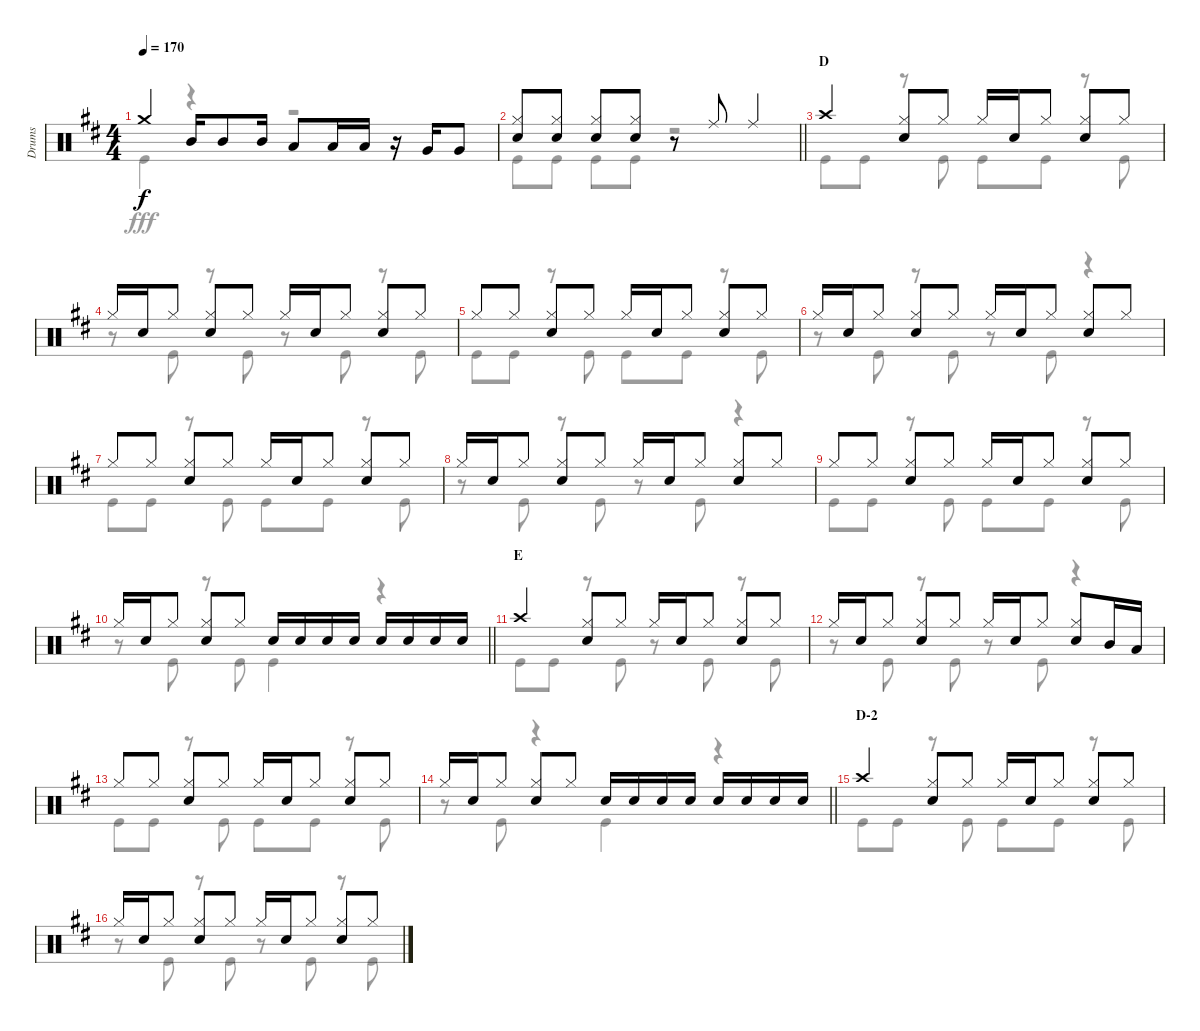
\track ("Drums" "Drums") {instrument percussion}
\staff {score}
\articulation defaults
\voice
\ts (4 4)
\tempo 170
\clef neutral
\ks d "Crash medium (hit)".4{dy f} "Mid Tom (hit)".16 "Mid Tom (hit)".8 "Mid Tom (hit)".16 "Low Tom (hit)".8 "Low Tom (hit)".16 "Low Tom (hit)".16
r.16 "Very Low Tom (hit)".16 "Very Low Tom (hit)".8 |
\barLineRight lightlight
("Hi-Hat (closed)" "Snare (hit) 2").8 ("Hi-Hat (closed)" "Snare (hit) 2").8 ("Hi-Hat (closed)" "Snare (hit) 2").8 ("Hi-Hat (closed)" "Snare (hit) 2").8 r.8 "Ride (middle)".8 "Ride (middle)".4 |
\section ("" "D")
"Crash high (hit)".4 ("Hi-Hat (closed)" "Snare (hit) 2").8 "Hi-Hat (closed)".8 "Hi-Hat (closed)".16 "Snare (hit) 2".16 "Hi-Hat (closed)".8 ("Hi-Hat (closed)" "Snare (hit) 2").8 "Hi-Hat (closed)".8 |
"Hi-Hat (closed)".16 "Snare (hit) 2".16 "Hi-Hat (closed)".8 ("Hi-Hat (closed)" "Snare (hit) 2").8 "Hi-Hat (closed)".8 "Hi-Hat (closed)".16 "Snare (hit) 2".16 "Hi-Hat (closed)".8 ("Hi-Hat (closed)" "Snare (hit) 2").8 "Hi-Hat (closed)".8 |
"Hi-Hat (closed)".8 "Hi-Hat (closed)".8 ("Hi-Hat (closed)" "Snare (hit) 2").8 "Hi-Hat (closed)".8 "Hi-Hat (closed)".16 "Snare (hit) 2".16 "Hi-Hat (closed)".8 ("Hi-Hat (closed)" "Snare (hit) 2").8 "Hi-Hat (closed)".8 |
"Hi-Hat (closed)".16 "Snare (hit) 2".16 "Hi-Hat (closed)".8 ("Hi-Hat (closed)" "Snare (hit) 2").8 "Hi-Hat (closed)".8 "Hi-Hat (closed)".16 "Snare (hit) 2".16 "Hi-Hat (closed)".8 ("Hi-Hat (closed)" "Snare (hit) 2").8 "Hi-Hat (closed)".8 |
"Hi-Hat (closed)".8 "Hi-Hat (closed)".8 ("Hi-Hat (closed)" "Snare (hit) 2").8 "Hi-Hat (closed)".8 "Hi-Hat (closed)".16 "Snare (hit) 2".16 "Hi-Hat (closed)".8 ("Hi-Hat (closed)" "Snare (hit) 2").8 "Hi-Hat (closed)".8 |
"Hi-Hat (closed)".16 "Snare (hit) 2".16 "Hi-Hat (closed)".8 ("Hi-Hat (closed)" "Snare (hit) 2").8 "Hi-Hat (closed)".8 "Hi-Hat (closed)".16 "Snare (hit) 2".16 "Hi-Hat (closed)".8 ("Hi-Hat (closed)" "Snare (hit) 2").8 "Hi-Hat (closed)".8 |
"Hi-Hat (closed)".8 "Hi-Hat (closed)".8 ("Hi-Hat (closed)" "Snare (hit) 2").8 "Hi-Hat (closed)".8 "Hi-Hat (closed)".16 "Snare (hit) 2".16 "Hi-Hat (closed)".8 ("Hi-Hat (closed)" "Snare (hit) 2").8 "Hi-Hat (closed)".8 |
\barLineRight lightlight "Hi-Hat (closed)".16 "Snare (hit) 2".16 "Hi-Hat (closed)".8
("Hi-Hat (closed)" "Snare (hit) 2").8 "Hi-Hat (closed)".8 "Snare (hit) 2".16 "Snare (hit) 2".16 "Snare (hit) 2".16 "Snare (hit) 2".16 "Snare (hit) 2".16 "Snare (hit) 2".16 "Snare (hit) 2".16 "Snare (hit) 2".16 |
\section ("" "E")
"Crash high (hit)".4 ("Hi-Hat (closed)" "Snare (hit) 2").8 "Hi-Hat (closed)".8 "Hi-Hat (closed)".16 "Snare (hit) 2".16 "Hi-Hat (closed)".8 ("Hi-Hat (closed)" "Snare (hit) 2").8 "Hi-Hat (closed)".8 |
"Hi-Hat (closed)".16 "Snare (hit) 2".16 "Hi-Hat (closed)".8 ("Hi-Hat (closed)" "Snare (hit) 2").8 "Hi-Hat (closed)".8 "Hi-Hat (closed)".16 "Snare (hit) 2".16 "Hi-Hat (closed)".8 ("Hi-Hat (closed)" "Snare (hit) 2").8 "Mid Tom (hit)".16 "Low Tom (hit)".16 |
"Hi-Hat (closed)".8 "Hi-Hat (closed)".8 ("Hi-Hat (closed)" "Snare (hit) 2").8 "Hi-Hat (closed)".8 "Hi-Hat (closed)".16 "Snare (hit) 2".16 "Hi-Hat (closed)".8 ("Hi-Hat (closed)" "Snare (hit) 2").8 "Hi-Hat (closed)".8 |
\barLineRight lightlight "Hi-Hat (closed)".16 "Snare (hit) 2".16 "Hi-Hat (closed)".8
("Hi-Hat (closed)" "Snare (hit) 2").8 "Hi-Hat (closed)".8 "Snare (hit) 2".16 "Snare (hit) 2".16 "Snare (hit) 2".16 "Snare (hit) 2".16 "Snare (hit) 2".16 "Snare (hit) 2".16 "Snare (hit) 2".16 "Snare (hit) 2".16 |
\section ("" "D-2")
"Crash high (hit)".4 ("Hi-Hat (closed)" "Snare (hit) 2").8 "Hi-Hat (closed)".8 "Hi-Hat (closed)".16 "Snare (hit) 2".16 "Hi-Hat (closed)".8 ("Hi-Hat (closed)" "Snare (hit) 2").8 "Hi-Hat (closed)".8 |
"Hi-Hat (closed)".16 "Snare (hit) 2".16 "Hi-Hat (closed)".8 ("Hi-Hat (closed)" "Snare (hit) 2").8 "Hi-Hat (closed)".8 "Hi-Hat (closed)".16 "Snare (hit) 2".16 "Hi-Hat (closed)".8 ("Hi-Hat (closed)" "Snare (hit) 2").8 "Hi-Hat (closed)".8
\voice
\clef neutral
\ottava regular
\simile none
\ks d "Kick (hit)".4{dy fff}
r.4 r.2 |
\barLineRight lightlight "Kick (hit)".8 "Kick (hit)".8 "Kick (hit)".8 "Kick (hit)".8
r.2 |
"Kick (hit)".8 "Kick (hit)".8 r.8 "Kick (hit)".8 "Kick (hit)".8 "Kick (hit)".8 r.8 "Kick (hit)".8 |
r.8 "Kick (hit)".8 r.8 "Kick (hit)".8 r.8 "Kick (hit)".8 r.8 "Kick (hit)".8 |
"Kick (hit)".8 "Kick (hit)".8 r.8 "Kick (hit)".8 "Kick (hit)".8 "Kick (hit)".8 r.8 "Kick (hit)".8 |
r.8 "Kick (hit)".8 r.8 "Kick (hit)".8 r.8 "Kick (hit)".8 r.4 |
"Kick (hit)".8 "Kick (hit)".8 r.8 "Kick (hit)".8 "Kick (hit)".8 "Kick (hit)".8 r.8 "Kick (hit)".8 |
r.8 "Kick (hit)".8 r.8 "Kick (hit)".8 r.8 "Kick (hit)".8 r.4 |
"Kick (hit)".8 "Kick (hit)".8 r.8 "Kick (hit)".8 "Kick (hit)".8 "Kick (hit)".8 r.8 "Kick (hit)".8 |
\barLineRight lightlight
r.8 "Kick (hit)".8 r.8 "Kick (hit)".8 "Kick (hit)".4 r.4 |
"Kick (hit)".8 "Kick (hit)".8 r.8 "Kick (hit)".8 r.8 "Kick (hit)".8 r.8 "Kick (hit)".8 |
r.8 "Kick (hit)".8 r.8 "Kick (hit)".8 r.8 "Kick (hit)".8 r.4 |
"Kick (hit)".8 "Kick (hit)".8 r.8 "Kick (hit)".8 "Kick (hit)".8 "Kick (hit)".8 r.8 "Kick (hit)".8 |
\barLineRight lightlight
r.8 "Kick (hit)".8 r.4 "Kick (hit)".4 r.4 |
"Kick (hit)".8 "Kick (hit)".8 r.8 "Kick (hit)".8 "Kick (hit)".8 "Kick (hit)".8 r.8 "Kick (hit)".8 |
r.8 "Kick (hit)".8 r.8 "Kick (hit)".8 r.8 "Kick (hit)".8 r.8 "Kick (hit)".8
